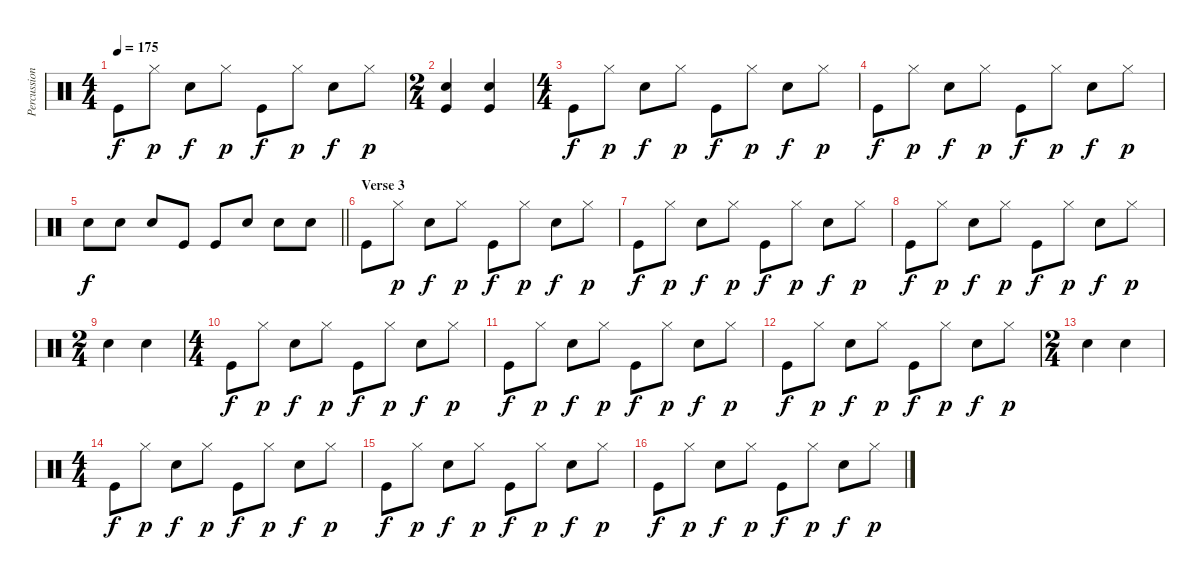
\track ("Percussion" "Percussion") {instrument percussion}
\staff {score}
\articulation defaults
\ts (4 4)
\tempo 175
\clef neutral
\ks c "Kick (hit)".8{dy f} "Hi-Hat (closed)".8{dy p} "Snare (hit) 2".8{dy f} "Hi-Hat (closed)".8{dy p} "Kick (hit)".8{dy f} "Hi-Hat (closed)".8{dy p} "Snare (hit) 2".8{dy f} "Hi-Hat (closed)".8{dy p}
|
\ts (2 4)
("Snare (hit) 2" "Kick (hit)").4 ("Snare (hit) 2" "Kick (hit)").4 |
\ts (4 4)
"Kick (hit)".8{dy f} "Hi-Hat (closed)".8{dy p} "Snare (hit) 2".8{dy f} "Hi-Hat (closed)".8{dy p} "Kick (hit)".8{dy f} "Hi-Hat (closed)".8{dy p} "Snare (hit) 2".8{dy f} "Hi-Hat (closed)".8{dy p} |
"Kick (hit)".8{dy f} "Hi-Hat (closed)".8{dy p} "Snare (hit) 2".8{dy f} "Hi-Hat (closed)".8{dy p} "Kick (hit)".8{dy f} "Hi-Hat (closed)".8{dy p} "Snare (hit) 2".8{dy f} "Hi-Hat (closed)".8{dy p} |
\barLineRight lightlight "Snare (hit) 2".8{dy f} "Snare (hit) 2".8 "Snare (hit) 2".8 "Kick (hit)".8 "Kick (hit)".8 "Snare (hit) 2".8 "Snare (hit) 2".8 "Snare (hit) 2".8
|
\section ("" "Verse 3")
"Kick (hit)".8 "Hi-Hat (closed)".8{dy p} "Snare (hit) 2".8{dy f} "Hi-Hat (closed)".8{dy p} "Kick (hit)".8{dy f} "Hi-Hat (closed)".8{dy p} "Snare (hit) 2".8{dy f} "Hi-Hat (closed)".8{dy p} |
"Kick (hit)".8{dy f} "Hi-Hat (closed)".8{dy p} "Snare (hit) 2".8{dy f} "Hi-Hat (closed)".8{dy p} "Kick (hit)".8{dy f} "Hi-Hat (closed)".8{dy p} "Snare (hit) 2".8{dy f} "Hi-Hat (closed)".8{dy p} |
"Kick (hit)".8{dy f} "Hi-Hat (closed)".8{dy p} "Snare (hit) 2".8{dy f} "Hi-Hat (closed)".8{dy p} "Kick (hit)".8{dy f} "Hi-Hat (closed)".8{dy p} "Snare (hit) 2".8{dy f} "Hi-Hat (closed)".8{dy p} |
\ts (2 4)
"Snare (hit) 2".4 "Snare (hit) 2".4 |
\ts (4 4)
"Kick (hit)".8{dy f} "Hi-Hat (closed)".8{dy p} "Snare (hit) 2".8{dy f} "Hi-Hat (closed)".8{dy p} "Kick (hit)".8{dy f} "Hi-Hat (closed)".8{dy p} "Snare (hit) 2".8{dy f} "Hi-Hat (closed)".8{dy p} |
"Kick (hit)".8{dy f} "Hi-Hat (closed)".8{dy p} "Snare (hit) 2".8{dy f} "Hi-Hat (closed)".8{dy p} "Kick (hit)".8{dy f} "Hi-Hat (closed)".8{dy p} "Snare (hit) 2".8{dy f} "Hi-Hat (closed)".8{dy p} |
"Kick (hit)".8{dy f} "Hi-Hat (closed)".8{dy p} "Snare (hit) 2".8{dy f} "Hi-Hat (closed)".8{dy p} "Kick (hit)".8{dy f} "Hi-Hat (closed)".8{dy p} "Snare (hit) 2".8{dy f} "Hi-Hat (closed)".8{dy p} |
\ts (2 4)
"Snare (hit) 2".4 "Snare (hit) 2".4 |
\ts (4 4)
"Kick (hit)".8{dy f} "Hi-Hat (closed)".8{dy p} "Snare (hit) 2".8{dy f} "Hi-Hat (closed)".8{dy p} "Kick (hit)".8{dy f} "Hi-Hat (closed)".8{dy p} "Snare (hit) 2".8{dy f} "Hi-Hat (closed)".8{dy p} |
"Kick (hit)".8{dy f} "Hi-Hat (closed)".8{dy p} "Snare (hit) 2".8{dy f} "Hi-Hat (closed)".8{dy p} "Kick (hit)".8{dy f} "Hi-Hat (closed)".8{dy p} "Snare (hit) 2".8{dy f} "Hi-Hat (closed)".8{dy p} |
"Kick (hit)".8{dy f} "Hi-Hat (closed)".8{dy p} "Snare (hit) 2".8{dy f} "Hi-Hat (closed)".8{dy p} "Kick (hit)".8{dy f} "Hi-Hat (closed)".8{dy p} "Snare (hit) 2".8{dy f} "Hi-Hat (closed)".8{dy p}
